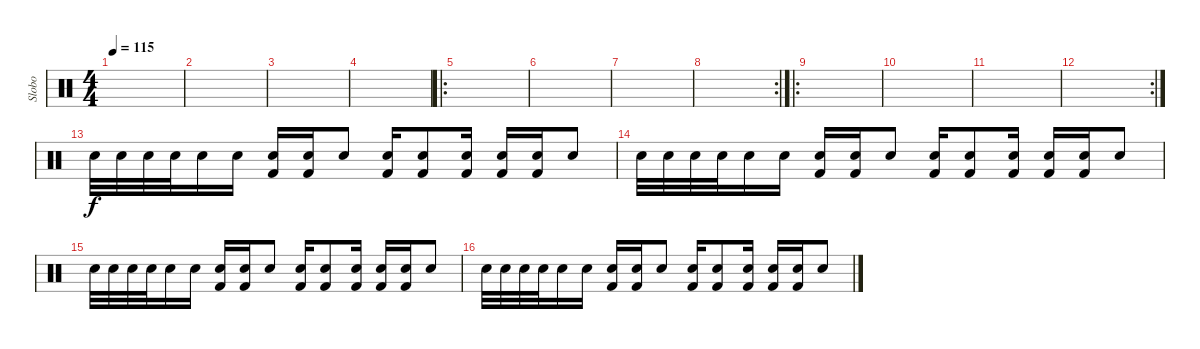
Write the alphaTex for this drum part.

\track ("Slobo" "Slobo") {instrument percussion}
\staff {score}
\articulation defaults
\ts (4 4)
\tempo 115
\clef neutral
\ks c
|
|
|
|
\ro
|
|
|
\rc 2
|
\ro
|
|
|
\rc 2
|
"Snare (hit) 2".32 "Snare (hit) 2".32 "Snare (hit) 2".32 "Snare (hit) 2".32 "Snare (hit) 2".16 "Snare (hit) 2".16 ("Kick (hit) 2" "Snare (hit) 2").16 ("Kick (hit) 2" "Snare (hit) 2").16 "Snare (hit) 2".8 ("Kick (hit) 2" "Snare (hit) 2").16 ("Kick (hit) 2" "Snare (hit) 2").8 ("Kick (hit) 2" "Snare (hit) 2").16 ("Kick (hit) 2" "Snare (hit) 2").16 ("Kick (hit) 2" "Snare (hit) 2").16 "Snare (hit) 2".8 |
"Snare (hit) 2".32 "Snare (hit) 2".32 "Snare (hit) 2".32 "Snare (hit) 2".32 "Snare (hit) 2".16 "Snare (hit) 2".16 ("Kick (hit) 2" "Snare (hit) 2").16 ("Kick (hit) 2" "Snare (hit) 2").16 "Snare (hit) 2".8 ("Kick (hit) 2" "Snare (hit) 2").16 ("Kick (hit) 2" "Snare (hit) 2").8 ("Kick (hit) 2" "Snare (hit) 2").16 ("Kick (hit) 2" "Snare (hit) 2").16 ("Kick (hit) 2" "Snare (hit) 2").16 "Snare (hit) 2".8 |
"Snare (hit) 2".32 "Snare (hit) 2".32 "Snare (hit) 2".32 "Snare (hit) 2".32 "Snare (hit) 2".16 "Snare (hit) 2".16 ("Kick (hit) 2" "Snare (hit) 2").16 ("Kick (hit) 2" "Snare (hit) 2").16 "Snare (hit) 2".8 ("Kick (hit) 2" "Snare (hit) 2").16 ("Kick (hit) 2" "Snare (hit) 2").8 ("Kick (hit) 2" "Snare (hit) 2").16 ("Kick (hit) 2" "Snare (hit) 2").16 ("Kick (hit) 2" "Snare (hit) 2").16 "Snare (hit) 2".8 |
"Snare (hit) 2".32 "Snare (hit) 2".32 "Snare (hit) 2".32 "Snare (hit) 2".32 "Snare (hit) 2".16 "Snare (hit) 2".16 ("Kick (hit) 2" "Snare (hit) 2").16 ("Kick (hit) 2" "Snare (hit) 2").16 "Snare (hit) 2".8 ("Kick (hit) 2" "Snare (hit) 2").16 ("Kick (hit) 2" "Snare (hit) 2").8 ("Kick (hit) 2" "Snare (hit) 2").16 ("Kick (hit) 2" "Snare (hit) 2").16 ("Kick (hit) 2" "Snare (hit) 2").16 "Snare (hit) 2".8
